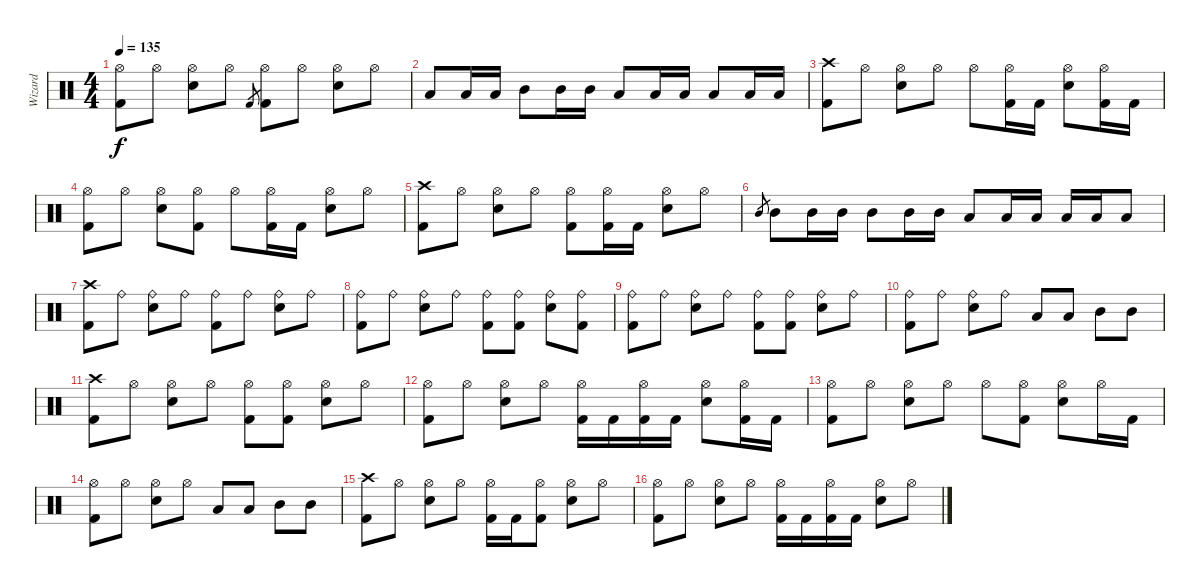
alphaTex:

\track ("Wizard" "Wizard") {instrument percussion}
\staff {score}
\articulation defaults
\ts (4 4)
\tempo 135
\clef neutral
\ks c
("Hi-Hat (open)" "Kick (hit) 2").8{dy f} "Hi-Hat (open)".8 ("Hi-Hat (open)" "Snare (hit) 2").8 "Hi-Hat (open)".8 "Kick (hit) 2".8{gr} ("Hi-Hat (open)" "Kick (hit) 2").8 "Hi-Hat (open)".8 ("Hi-Hat (open)" "Snare (hit) 2").8 "Hi-Hat (open)".8 |
"Low Tom (hit)".8 "Low Tom (hit)".16 "Low Tom (hit)".16 "Mid Tom (hit)".8 "Mid Tom (hit)".16 "Mid Tom (hit)".16 "Low Tom (hit)".8 "Low Tom (hit)".16 "Low Tom (hit)".16 "Low Tom (hit)".8 "Low Tom (hit)".16 "Low Tom (hit)".16 |
("Crash high (hit)" "Kick (hit) 2").8 "Hi-Hat (open)".8 ("Hi-Hat (open)" "Snare (hit) 2").8 "Hi-Hat (open)".8 "Hi-Hat (open)".8 ("Hi-Hat (open)" "Kick (hit) 2").16 "Kick (hit) 2".16 ("Hi-Hat (open)" "Snare (hit) 2").8 ("Hi-Hat (open)" "Kick (hit) 2").16 "Kick (hit) 2".16 |
("Hi-Hat (open)" "Kick (hit) 2").8 "Hi-Hat (open)".8 ("Hi-Hat (open)" "Snare (hit) 2").8 ("Hi-Hat (open)" "Kick (hit) 2").8 "Hi-Hat (open)".8 ("Hi-Hat (open)" "Kick (hit) 2").16 "Kick (hit) 2".16 ("Hi-Hat (open)" "Snare (hit) 2").8 "Hi-Hat (open)".8 |
("Crash high (hit)" "Kick (hit) 2").8 "Hi-Hat (open)".8 ("Hi-Hat (open)" "Snare (hit) 2").8 "Hi-Hat (open)".8 ("Hi-Hat (open)" "Kick (hit) 2").8 ("Hi-Hat (open)" "Kick (hit) 2").16 "Kick (hit) 2".16 ("Hi-Hat (open)" "Snare (hit) 2").8 "Hi-Hat (open)".8 |
"Mid Tom (hit)".8{gr} "Mid Tom (hit)".8 "Mid Tom (hit)".16 "Mid Tom (hit)".16 "Mid Tom (hit)".8 "Mid Tom (hit)".16 "Mid Tom (hit)".16 "Low Tom (hit)".8 "Low Tom (hit)".16 "Low Tom (hit)".16 "Low Tom (hit)".16 "Low Tom (hit)".16 "Low Tom (hit)".8 |
("Crash high (hit)" "Kick (hit) 2").8 "Ride (bell)".8 ("Ride (bell)" "Snare (hit) 2").8 "Ride (bell)".8 ("Ride (bell)" "Kick (hit) 2").8 "Ride (bell)".8 ("Ride (bell)" "Snare (hit) 2").8 "Ride (bell)".8 |
("Ride (bell)" "Kick (hit) 2").8 "Ride (bell)".8 ("Ride (bell)" "Snare (hit) 2").8 "Ride (bell)".8 ("Ride (bell)" "Kick (hit) 2").8 ("Ride (bell)" "Kick (hit) 2").8 ("Ride (bell)" "Snare (hit) 2").8 ("Ride (bell)" "Kick (hit) 2").8 |
("Ride (bell)" "Kick (hit) 2").8 "Ride (bell)".8 ("Ride (bell)" "Snare (hit) 2").8 "Ride (bell)".8 ("Ride (bell)" "Kick (hit) 2").8 ("Ride (bell)" "Kick (hit) 2").8 ("Ride (bell)" "Snare (hit) 2").8 "Ride (bell)".8 |
("Ride (bell)" "Kick (hit) 2").8 "Ride (bell)".8 ("Ride (bell)" "Snare (hit) 2").8 "Ride (bell)".8 "Low Tom (hit)".8 "Low Tom (hit)".8 "Mid Tom (hit)".8 "Mid Tom (hit)".8 |
("Crash high (hit)" "Kick (hit) 2").8 "Hi-Hat (open)".8 ("Hi-Hat (open)" "Snare (hit) 2").8 "Hi-Hat (open)".8 ("Hi-Hat (open)" "Kick (hit) 2").8 ("Hi-Hat (open)" "Kick (hit) 2").8 ("Hi-Hat (open)" "Snare (hit) 2").8 "Hi-Hat (open)".8 |
("Hi-Hat (open)" "Kick (hit) 2").8 "Hi-Hat (open)".8 ("Hi-Hat (open)" "Snare (hit) 2").8 "Hi-Hat (open)".8 ("Hi-Hat (open)" "Kick (hit) 2").16 "Kick (hit) 2".16 ("Hi-Hat (open)" "Kick (hit) 2").16 "Kick (hit) 2".16 ("Hi-Hat (open)" "Snare (hit) 2").8 ("Hi-Hat (open)" "Kick (hit) 2").16 "Kick (hit) 2".16 |
("Hi-Hat (open)" "Kick (hit) 2").8 "Hi-Hat (open)".8 ("Hi-Hat (open)" "Snare (hit) 2").8 "Hi-Hat (open)".8 "Hi-Hat (open)".8 ("Hi-Hat (open)" "Kick (hit) 2").8 ("Hi-Hat (open)" "Snare (hit) 2").8 "Hi-Hat (open)".16 "Kick (hit) 2".16 |
("Hi-Hat (open)" "Kick (hit) 2").8 "Hi-Hat (open)".8 ("Hi-Hat (open)" "Snare (hit) 2").8 "Hi-Hat (open)".8 "Low Tom (hit)".8 "Low Tom (hit)".8 "Mid Tom (hit)".8 "Mid Tom (hit)".8 |
("Crash high (hit)" "Kick (hit) 2").8 "Hi-Hat (open)".8 ("Hi-Hat (open)" "Snare (hit) 2").8 "Hi-Hat (open)".8 ("Hi-Hat (open)" "Kick (hit) 2").16 "Kick (hit) 2".16 ("Hi-Hat (open)" "Kick (hit) 2").8 ("Hi-Hat (open)" "Snare (hit) 2").8 "Hi-Hat (open)".8 |
("Hi-Hat (open)" "Kick (hit) 2").8 "Hi-Hat (open)".8 ("Hi-Hat (open)" "Snare (hit) 2").8 "Hi-Hat (open)".8 ("Hi-Hat (open)" "Kick (hit) 2").16 "Kick (hit) 2".16 ("Hi-Hat (open)" "Kick (hit) 2").16 "Kick (hit) 2".16 ("Hi-Hat (open)" "Snare (hit) 2").8 "Hi-Hat (open)".8
